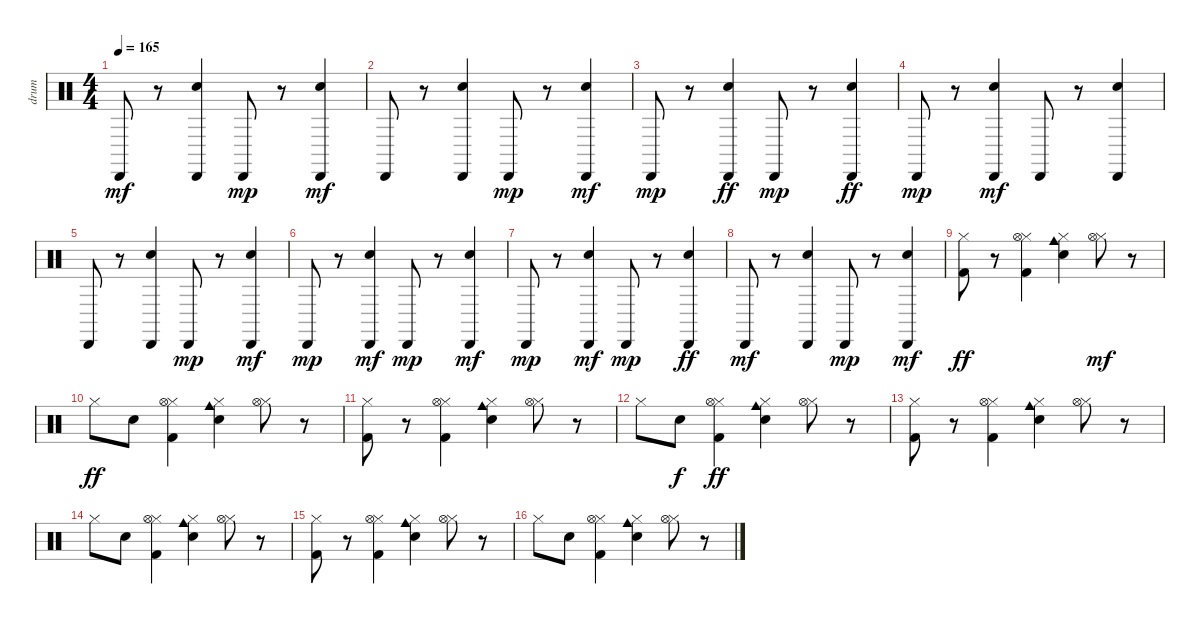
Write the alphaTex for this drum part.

\track ("drum" "drum") {instrument percussion}
\staff {score}
\articulation defaults
\ts (4 4)
\tempo 165
\clef neutral
\ks c "Cabasa (hit)".8{dy mf}
r.8 ("Hand Clap (hit)" "Cabasa (hit)").4 "Cabasa (hit)".8{dy mp} r.8 ("Hand Clap (hit)" "Cabasa (hit)").4{dy mf} |
"Cabasa (hit)".8 r.8 ("Hand Clap (hit)" "Cabasa (hit)").4 "Cabasa (hit)".8{dy mp} r.8 ("Hand Clap (hit)" "Cabasa (hit)").4{dy mf} |
"Cabasa (hit)".8{dy mp} r.8 ("Cabasa (hit)" "Hand Clap (hit)").4{dy ff} "Cabasa (hit)".8{dy mp} r.8 ("Cabasa (hit)" "Hand Clap (hit)").4{dy ff} |
"Cabasa (hit)".8{dy mp} r.8 ("Hand Clap (hit)" "Cabasa (hit)").4{dy mf} "Cabasa (hit)".8 r.8 ("Hand Clap (hit)" "Cabasa (hit)").4 |
"Cabasa (hit)".8 r.8 ("Hand Clap (hit)" "Cabasa (hit)").4 "Cabasa (hit)".8{dy mp} r.8 ("Hand Clap (hit)" "Cabasa (hit)").4{dy mf} |
"Cabasa (hit)".8{dy mp} r.8 ("Hand Clap (hit)" "Cabasa (hit)").4{dy mf} "Cabasa (hit)".8{dy mp} r.8 ("Hand Clap (hit)" "Cabasa (hit)").4{dy mf} |
"Cabasa (hit)".8{dy mp} r.8 ("Cabasa (hit)" "Hand Clap (hit)").4{dy mf} "Cabasa (hit)".8{dy mp} r.8 ("Cabasa (hit)" "Hand Clap (hit)").4{dy ff} |
"Cabasa (hit)".8{dy mf} r.8 ("Hand Clap (hit)" "Cabasa (hit)").4 "Cabasa (hit)".8{dy mp} r.8 ("Hand Clap (hit)" "Cabasa (hit)").4{dy mf} |
("Kick (hit) 2" "Hi-Hat (closed)").8{dy ff} r.8 ("Kick (hit) 2" "Hi-Hat (closed)" "Hi-Hat (open)").4 ("Electric Snare (hit)" "Hi-Hat (closed)" "Cowbell medium (hit)").4 ("Hi-Hat (closed)" "Hi-Hat (open)").8{dy mf} r.8 |
"Hi-Hat (closed)".8{dy ff} "Electric Snare (hit)".8 ("Kick (hit) 2" "Hi-Hat (closed)" "Hi-Hat (open)").4 ("Electric Snare (hit)" "Hi-Hat (closed)" "Cowbell medium (hit)").4 ("Hi-Hat (closed)" "Hi-Hat (open)").8 r.8 |
("Kick (hit) 2" "Hi-Hat (closed)").8 r.8 ("Kick (hit) 2" "Hi-Hat (closed)" "Hi-Hat (open)").4 ("Electric Snare (hit)" "Hi-Hat (closed)" "Cowbell medium (hit)").4 ("Hi-Hat (closed)" "Hi-Hat (open)").8 r.8 |
"Hi-Hat (closed)".8 "Electric Snare (hit)".8{dy f} ("Kick (hit) 2" "Hi-Hat (closed)" "Hi-Hat (open)").4{dy ff} ("Electric Snare (hit)" "Hi-Hat (closed)" "Cowbell medium (hit)").4 ("Hi-Hat (closed)" "Hi-Hat (open)").8 r.8 |
("Kick (hit) 2" "Hi-Hat (closed)").8 r.8 ("Kick (hit) 2" "Hi-Hat (closed)" "Hi-Hat (open)").4 ("Electric Snare (hit)" "Hi-Hat (closed)" "Cowbell medium (hit)").4 ("Hi-Hat (closed)" "Hi-Hat (open)").8 r.8 |
"Hi-Hat (closed)".8 "Electric Snare (hit)".8 ("Kick (hit) 2" "Hi-Hat (closed)" "Hi-Hat (open)").4 ("Electric Snare (hit)" "Hi-Hat (closed)" "Cowbell medium (hit)").4 ("Hi-Hat (closed)" "Hi-Hat (open)").8 r.8 |
("Kick (hit) 2" "Hi-Hat (closed)").8 r.8 ("Kick (hit) 2" "Hi-Hat (closed)" "Hi-Hat (open)").4 ("Electric Snare (hit)" "Hi-Hat (closed)" "Cowbell medium (hit)").4 ("Hi-Hat (closed)" "Hi-Hat (open)").8 r.8 |
"Hi-Hat (closed)".8 "Electric Snare (hit)".8 ("Kick (hit) 2" "Hi-Hat (closed)" "Hi-Hat (open)").4 ("Electric Snare (hit)" "Hi-Hat (closed)" "Cowbell medium (hit)").4 ("Hi-Hat (closed)" "Hi-Hat (open)").8 r.8
